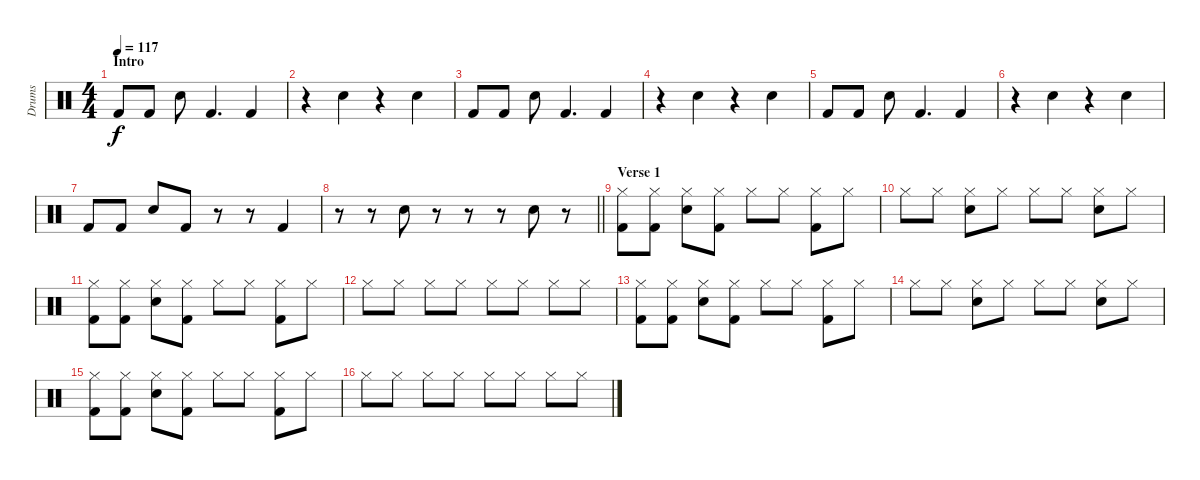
\track ("Drums" "Drums") {instrument percussion}
\staff {score}
\articulation defaults
\ts (4 4)
\section ("" "Intro")
\tempo 117
\clef neutral
\ks c "Kick (hit) 2".8{dy f} "Kick (hit) 2".8 "Snare (hit) 2".8 "Kick (hit) 2".4{d} "Kick (hit) 2".4
|
r.4 "Snare (hit) 2".4 r.4 "Snare (hit) 2".4 |
"Kick (hit) 2".8 "Kick (hit) 2".8 "Snare (hit) 2".8 "Kick (hit) 2".4{d} "Kick (hit) 2".4 |
r.4 "Snare (hit) 2".4 r.4 "Snare (hit) 2".4 |
"Kick (hit) 2".8 "Kick (hit) 2".8 "Snare (hit) 2".8 "Kick (hit) 2".4{d} "Kick (hit) 2".4 |
r.4 "Snare (hit) 2".4 r.4 "Snare (hit) 2".4 |
"Kick (hit) 2".8 "Kick (hit) 2".8 "Snare (hit) 2".8 "Kick (hit) 2".8 r.8 r.8 "Kick (hit) 2".4 |
\barLineRight lightlight
r.8 r.8 "Snare (hit) 2".8 r.8 r.8 r.8 "Snare (hit) 2".8 r.8 |
\section ("" "Verse 1")
("Hi-Hat (closed)" "Kick (hit) 2").8 ("Hi-Hat (closed)" "Kick (hit) 2").8 ("Hi-Hat (closed)" "Snare (hit) 2").8 ("Hi-Hat (closed)" "Kick (hit) 2").8 "Hi-Hat (closed)".8 "Hi-Hat (closed)".8 ("Hi-Hat (closed)" "Kick (hit) 2").8 "Hi-Hat (closed)".8 |
"Hi-Hat (closed)".8 "Hi-Hat (closed)".8 ("Hi-Hat (closed)" "Snare (hit) 2").8 "Hi-Hat (closed)".8 "Hi-Hat (closed)".8 "Hi-Hat (closed)".8 ("Hi-Hat (closed)" "Snare (hit) 2").8 "Hi-Hat (closed)".8 |
("Hi-Hat (closed)" "Kick (hit) 2").8 ("Hi-Hat (closed)" "Kick (hit) 2").8 ("Hi-Hat (closed)" "Snare (hit) 2").8 ("Hi-Hat (closed)" "Kick (hit) 2").8 "Hi-Hat (closed)".8 "Hi-Hat (closed)".8 ("Hi-Hat (closed)" "Kick (hit) 2").8 "Hi-Hat (closed)".8 |
"Hi-Hat (closed)".8 "Hi-Hat (closed)".8 "Hi-Hat (closed)".8 "Hi-Hat (closed)".8 "Hi-Hat (closed)".8 "Hi-Hat (closed)".8 "Hi-Hat (closed)".8 "Hi-Hat (closed)".8 |
("Hi-Hat (closed)" "Kick (hit) 2").8 ("Hi-Hat (closed)" "Kick (hit) 2").8 ("Hi-Hat (closed)" "Snare (hit) 2").8 ("Hi-Hat (closed)" "Kick (hit) 2").8 "Hi-Hat (closed)".8 "Hi-Hat (closed)".8 ("Hi-Hat (closed)" "Kick (hit) 2").8 "Hi-Hat (closed)".8 |
"Hi-Hat (closed)".8 "Hi-Hat (closed)".8 ("Hi-Hat (closed)" "Snare (hit) 2").8 "Hi-Hat (closed)".8 "Hi-Hat (closed)".8 "Hi-Hat (closed)".8 ("Hi-Hat (closed)" "Snare (hit) 2").8 "Hi-Hat (closed)".8 |
("Hi-Hat (closed)" "Kick (hit) 2").8 ("Hi-Hat (closed)" "Kick (hit) 2").8 ("Hi-Hat (closed)" "Snare (hit) 2").8 ("Hi-Hat (closed)" "Kick (hit) 2").8 "Hi-Hat (closed)".8 "Hi-Hat (closed)".8 ("Hi-Hat (closed)" "Kick (hit) 2").8 "Hi-Hat (closed)".8 |
"Hi-Hat (closed)".8 "Hi-Hat (closed)".8 "Hi-Hat (closed)".8 "Hi-Hat (closed)".8 "Hi-Hat (closed)".8 "Hi-Hat (closed)".8 "Hi-Hat (closed)".8 "Hi-Hat (closed)".8
